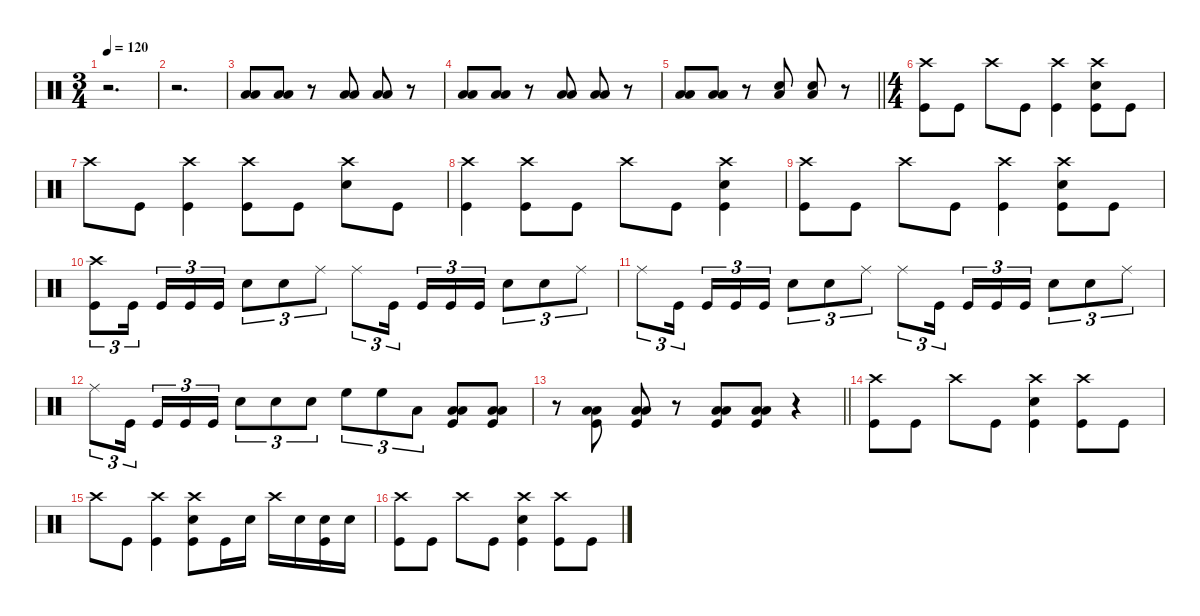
\defaultSystemsLayout 4
\hideDynamics
\bracketExtendMode nobrackets
\singleTrackTrackNamePolicy hidden
\multiTrackTrackNamePolicy hidden
\firstSystemTrackNameMode fullname
\firstSystemTrackNameOrientation horizontal
\otherSystemsTrackNameOrientation horizontal
\track ("Drums" "drm.") {instrument percussion}
\staff {score}
\articulation defaults
\ts (3 4)
\beaming (8 2 2 2 2)
\tempo 120
\clef neutral
\ks c
r.2{d dy f beam Down} |
r.2{d beam Down} |
("Low Tom (hit)" "Low Floor Tom (hit)").8{beam Up} ("Low Tom (hit)" "Low Floor Tom (hit)").8{beam Up} r.8{beam Up} ("Low Tom (hit)" "Low Floor Tom (hit)").8{beam Up} ("Low Tom (hit)" "Low Floor Tom (hit)").8{beam Up} r.8{beam Up} |
("Low Tom (hit)" "Low Floor Tom (hit)").8{beam Up} ("Low Tom (hit)" "Low Floor Tom (hit)").8{beam Up} r.8{beam Up} ("Low Tom (hit)" "Low Floor Tom (hit)").8{beam Up} ("Low Tom (hit)" "Low Floor Tom (hit)").8{beam Up} r.8{beam Up} |
\barLineRight lightlight
("Low Tom (hit)" "Low Floor Tom (hit)").8{beam Up} ("Low Tom (hit)" "Low Floor Tom (hit)").8{beam Up} r.8{beam Up} ("Low Floor Tom (hit)" "Snare (hit) 2").8{beam Up} ("Low Floor Tom (hit)" "Snare (hit) 2").8{beam Up} r.8{beam Up} |
\ts (4 4)
\beaming (8 2 2 2 2)
("Kick (hit)" "Crash high (hit)").8{beam Down} "Kick (hit)".8{beam Down} "Crash high (hit)".8{beam Down} "Kick (hit)".8{beam Down} ("Crash high (hit)" "Kick (hit)").4{beam Down} ("Kick (hit)" "Snare (hit) 2" "Crash high (hit)").8{beam Down} "Kick (hit)".8{beam Down} |
"Crash high (hit)".8{beam Down} "Kick (hit)".8{beam Down} ("Crash high (hit)" "Kick (hit)").4{beam Down} ("Crash high (hit)" "Kick (hit)").8{beam Down} "Kick (hit)".8{beam Down} ("Snare (hit) 2" "Crash high (hit)").8{beam Down} "Kick (hit)".8{beam Down} |
("Crash high (hit)" "Kick (hit)").4{beam Down} ("Crash high (hit)" "Kick (hit)").8{beam Down} "Kick (hit)".8{beam Down} "Crash high (hit)".8{beam Down} "Kick (hit)".8{beam Down} ("Snare (hit) 2" "Crash high (hit)" "Kick (hit)").4{beam Down} |
("Crash high (hit)" "Kick (hit)").8{beam Down} "Kick (hit)".8{beam Down} "Crash high (hit)".8{beam Down} "Kick (hit)".8{beam Down} ("Crash high (hit)" "Kick (hit)").4{beam Down} ("Snare (hit) 2" "Crash high (hit)" "Kick (hit)").8{beam Down} "Kick (hit)".8{beam Down} |
("Crash high (hit)" "Kick (hit)").8{tu (3 2) beam Down} "Kick (hit)".16{tu (3 2) beam Down} "Kick (hit)".16{tu (3 2) beam Up} "Kick (hit)".16{tu (3 2) beam Up} "Kick (hit)".16{tu (3 2) beam Up} "Snare (hit) 2".8{tu (3 2) beam Down} "Snare (hit) 2".8{tu (3 2) beam Down} "Ride (middle)".8{tu (3 2) beam Down} "Ride (middle)".8{tu (3 2) beam Down} "Kick (hit)".16{tu (3 2) beam Down} "Kick (hit)".16{tu (3 2) beam Up} "Kick (hit)".16{tu (3 2) beam Up} "Kick (hit)".16{tu (3 2) beam Up} "Snare (hit) 2".8{tu (3 2) beam Down} "Snare (hit) 2".8{tu (3 2) beam Down} "Ride (middle)".8{tu (3 2) beam Down} |
"Ride (middle)".8{tu (3 2) beam Down} "Kick (hit)".16{tu (3 2) beam Down} "Kick (hit)".16{tu (3 2) beam Up} "Kick (hit)".16{tu (3 2) beam Up} "Kick (hit)".16{tu (3 2) beam Up} "Snare (hit) 2".8{tu (3 2) beam Down} "Snare (hit) 2".8{tu (3 2) beam Down} "Ride (middle)".8{tu (3 2) beam Down} "Ride (middle)".8{tu (3 2) beam Down} "Kick (hit)".16{tu (3 2) beam Down} "Kick (hit)".16{tu (3 2) beam Up} "Kick (hit)".16{tu (3 2) beam Up} "Kick (hit)".16{tu (3 2) beam Up} "Snare (hit) 2".8{tu (3 2) beam Down} "Snare (hit) 2".8{tu (3 2) beam Down} "Ride (middle)".8{tu (3 2) beam Down} |
"Ride (middle)".8{tu (3 2) beam Down} "Kick (hit)".16{tu (3 2) beam Down} "Kick (hit)".16{tu (3 2) beam Up} "Kick (hit)".16{tu (3 2) beam Up} "Kick (hit)".16{tu (3 2) beam Up} "Snare (hit) 2".8{tu (3 2) beam Down} "Snare (hit) 2".8{tu (3 2) beam Down} "Snare (hit) 2".8{tu (3 2) beam Down} "High Floor Tom (hit)".8{tu (3 2) beam Down} "High Floor Tom (hit)".8{tu (3 2) beam Down} "Low Tom (hit)".8{tu (3 2) beam Down} ("Kick (hit)" "Low Floor Tom (hit)" "Low Tom (hit)").8{beam Up} ("Kick (hit)" "Low Floor Tom (hit)" "Low Tom (hit)").8{beam Up} |
\barLineRight lightlight
r.8{beam Down} ("Low Floor Tom (hit)" "Low Tom (hit)" "Kick (hit)").8{beam Up} ("Low Floor Tom (hit)" "Low Tom (hit)" "Kick (hit)").8{beam Up} r.8{beam Up} ("Low Floor Tom (hit)" "Low Tom (hit)" "Kick (hit)").8{beam Up} ("Low Floor Tom (hit)" "Low Tom (hit)" "Kick (hit)").8{beam Up} r.4{beam Up} |
("Crash high (hit)" "Kick (hit)").8{beam Down} "Kick (hit)".8{beam Down} "Crash high (hit)".8{beam Down} "Kick (hit)".8{beam Down} ("Snare (hit) 2" "Crash high (hit)" "Kick (hit)").4{beam Down} ("Crash high (hit)" "Kick (hit)").8{beam Down} "Kick (hit)".8{beam Down} |
"Crash high (hit)".8{beam Down} "Kick (hit)".8{beam Down} ("Crash high (hit)" "Kick (hit)").4{beam Down} ("Snare (hit) 2" "Crash high (hit)" "Kick (hit)").8{beam Down} "Kick (hit)".16{beam Down} "Snare (hit) 2".16{beam Down} "Crash high (hit)".16{beam Down} "Snare (hit) 2".16{beam Down} ("Kick (hit)" "Snare (hit) 2").16{beam Down} "Snare (hit) 2".16{beam Down} |
("Kick (hit)" "Crash high (hit)").8{beam Down} "Kick (hit)".8{beam Down} "Crash high (hit)".8{beam Down} "Kick (hit)".8{beam Down} ("Kick (hit)" "Snare (hit) 2" "Crash high (hit)").4{beam Down} ("Kick (hit)" "Crash high (hit)").8{beam Down} "Kick (hit)".8{beam Down}
